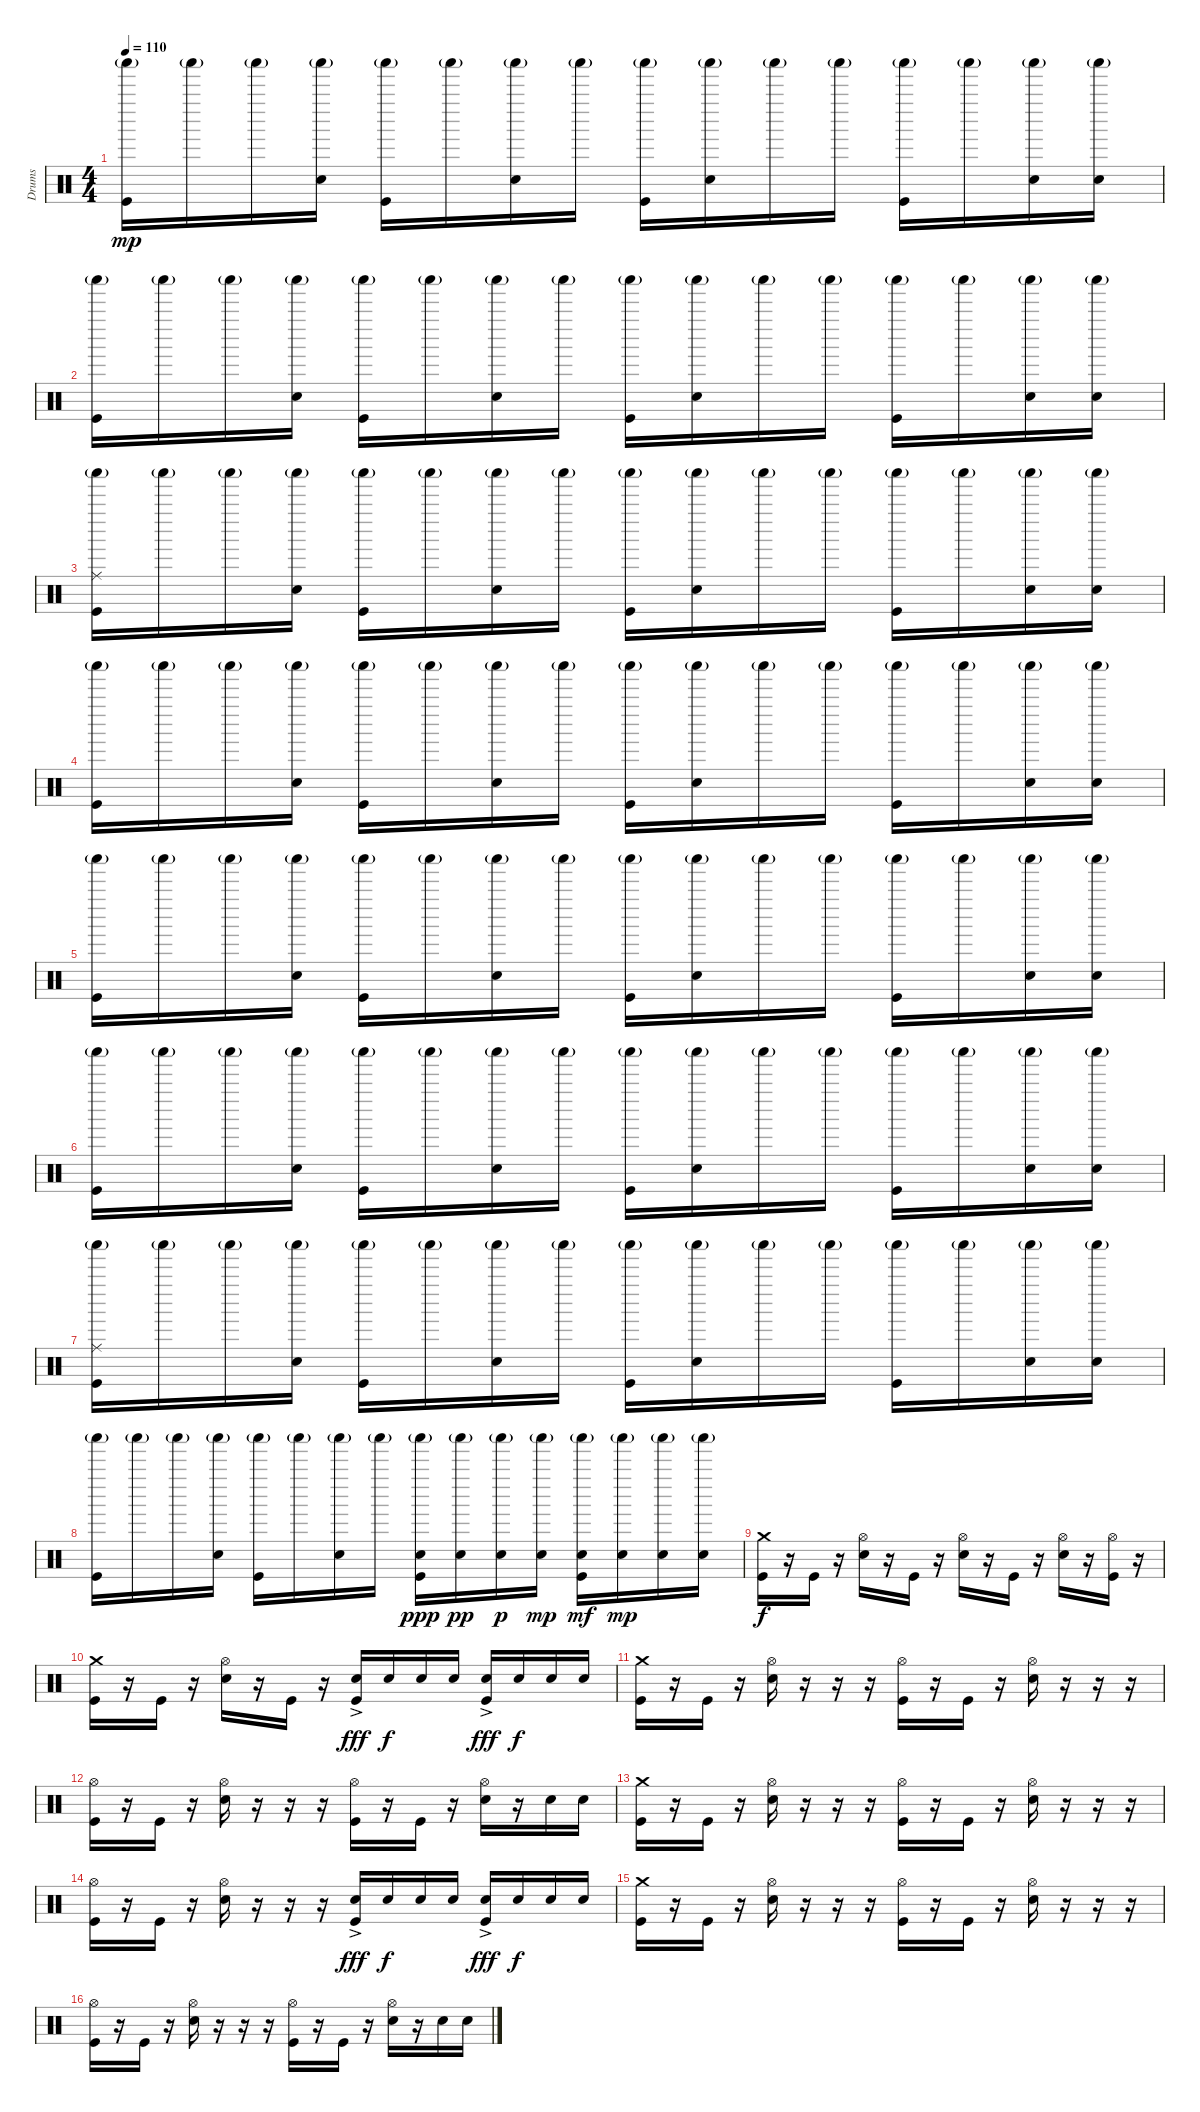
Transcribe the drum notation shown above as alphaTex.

\track ("Drums" "Drums") {instrument percussion}
\staff {score}
\articulation defaults
\ts (4 4)
\tempo 110
\clef neutral
\ks c
("Shaker (hit)"{g} "Kick (hit)").16{dy mp} "Shaker (hit)"{g}.16 "Shaker (hit)"{g}.16 ("Shaker (hit)"{g} "Snare (hit) 2").16 ("Shaker (hit)"{g} "Kick (hit)").16 "Shaker (hit)"{g}.16 ("Shaker (hit)"{g} "Snare (hit) 2").16 "Shaker (hit)"{g}.16 ("Shaker (hit)"{g} "Kick (hit)").16 ("Shaker (hit)"{g} "Snare (hit) 2").16 "Shaker (hit)"{g}.16 "Shaker (hit)"{g}.16 ("Shaker (hit)"{g} "Kick (hit)").16 "Shaker (hit)"{g}.16 ("Shaker (hit)"{g} "Snare (hit) 2").16 ("Shaker (hit)"{g} "Snare (hit) 2").16 |
("Shaker (hit)"{g} "Kick (hit)").16 "Shaker (hit)"{g}.16 "Shaker (hit)"{g}.16 ("Shaker (hit)"{g} "Snare (hit) 2").16 ("Shaker (hit)"{g} "Kick (hit)").16 "Shaker (hit)"{g}.16 ("Shaker (hit)"{g} "Snare (hit) 2").16 "Shaker (hit)"{g}.16 ("Shaker (hit)"{g} "Kick (hit)").16 ("Shaker (hit)"{g} "Snare (hit) 2").16 "Shaker (hit)"{g}.16 "Shaker (hit)"{g}.16 ("Shaker (hit)"{g} "Kick (hit)").16 "Shaker (hit)"{g}.16 ("Shaker (hit)"{g} "Snare (hit) 2").16 ("Shaker (hit)"{g} "Snare (hit) 2").16 |
("Shaker (hit)"{g} "Ride (middle)" "Kick (hit)").16 "Shaker (hit)"{g}.16 "Shaker (hit)"{g}.16 ("Shaker (hit)"{g} "Snare (hit) 2").16 ("Shaker (hit)"{g} "Kick (hit)").16 "Shaker (hit)"{g}.16 ("Shaker (hit)"{g} "Snare (hit) 2").16 "Shaker (hit)"{g}.16 ("Shaker (hit)"{g} "Kick (hit)").16 ("Shaker (hit)"{g} "Snare (hit) 2").16 "Shaker (hit)"{g}.16 "Shaker (hit)"{g}.16 ("Shaker (hit)"{g} "Kick (hit)").16 "Shaker (hit)"{g}.16 ("Shaker (hit)"{g} "Snare (hit) 2").16 ("Shaker (hit)"{g} "Snare (hit) 2").16 |
("Shaker (hit)"{g} "Kick (hit)").16 "Shaker (hit)"{g}.16 "Shaker (hit)"{g}.16 ("Shaker (hit)"{g} "Snare (hit) 2").16 ("Shaker (hit)"{g} "Kick (hit)").16 "Shaker (hit)"{g}.16 ("Shaker (hit)"{g} "Snare (hit) 2").16 "Shaker (hit)"{g}.16 ("Shaker (hit)"{g} "Kick (hit)").16 ("Shaker (hit)"{g} "Snare (hit) 2").16 "Shaker (hit)"{g}.16 "Shaker (hit)"{g}.16 ("Shaker (hit)"{g} "Kick (hit)").16 "Shaker (hit)"{g}.16 ("Shaker (hit)"{g} "Snare (hit) 2").16 ("Shaker (hit)"{g} "Snare (hit) 2").16 |
("Shaker (hit)"{g} "Kick (hit)").16 "Shaker (hit)"{g}.16 "Shaker (hit)"{g}.16 ("Shaker (hit)"{g} "Snare (hit) 2").16 ("Shaker (hit)"{g} "Kick (hit)").16 "Shaker (hit)"{g}.16 ("Shaker (hit)"{g} "Snare (hit) 2").16 "Shaker (hit)"{g}.16 ("Shaker (hit)"{g} "Kick (hit)").16 ("Shaker (hit)"{g} "Snare (hit) 2").16 "Shaker (hit)"{g}.16 "Shaker (hit)"{g}.16 ("Shaker (hit)"{g} "Kick (hit)").16 "Shaker (hit)"{g}.16 ("Shaker (hit)"{g} "Snare (hit) 2").16 ("Shaker (hit)"{g} "Snare (hit) 2").16 |
("Shaker (hit)"{g} "Kick (hit)").16 "Shaker (hit)"{g}.16 "Shaker (hit)"{g}.16 ("Shaker (hit)"{g} "Snare (hit) 2").16 ("Shaker (hit)"{g} "Kick (hit)").16 "Shaker (hit)"{g}.16 ("Shaker (hit)"{g} "Snare (hit) 2").16 "Shaker (hit)"{g}.16 ("Shaker (hit)"{g} "Kick (hit)").16 ("Shaker (hit)"{g} "Snare (hit) 2").16 "Shaker (hit)"{g}.16 "Shaker (hit)"{g}.16 ("Shaker (hit)"{g} "Kick (hit)").16 "Shaker (hit)"{g}.16 ("Shaker (hit)"{g} "Snare (hit) 2").16 ("Shaker (hit)"{g} "Snare (hit) 2").16 |
("Shaker (hit)"{g} "Ride (middle)" "Kick (hit)").16 "Shaker (hit)"{g}.16 "Shaker (hit)"{g}.16 ("Shaker (hit)"{g} "Snare (hit) 2").16 ("Shaker (hit)"{g} "Kick (hit)").16 "Shaker (hit)"{g}.16 ("Shaker (hit)"{g} "Snare (hit) 2").16 "Shaker (hit)"{g}.16 ("Shaker (hit)"{g} "Kick (hit)").16 ("Shaker (hit)"{g} "Snare (hit) 2").16 "Shaker (hit)"{g}.16 "Shaker (hit)"{g}.16 ("Shaker (hit)"{g} "Kick (hit)").16 "Shaker (hit)"{g}.16 ("Shaker (hit)"{g} "Snare (hit) 2").16 ("Shaker (hit)"{g} "Snare (hit) 2").16 |
("Shaker (hit)"{g} "Kick (hit)").16 "Shaker (hit)"{g}.16 "Shaker (hit)"{g}.16 ("Shaker (hit)"{g} "Snare (hit) 2").16 ("Shaker (hit)"{g} "Kick (hit)").16 "Shaker (hit)"{g}.16 ("Shaker (hit)"{g} "Snare (hit) 2").16 "Shaker (hit)"{g}.16 ("Shaker (hit)"{g} "Snare (hit) 2" "Kick (hit)").16{dy ppp} ("Shaker (hit)"{g} "Snare (hit) 2").16{dy pp} ("Shaker (hit)"{g} "Snare (hit) 2").16{dy p} ("Shaker (hit)"{g} "Snare (hit) 2").16{dy mp} ("Shaker (hit)"{g} "Snare (hit) 2" "Kick (hit)").16{dy mf} ("Shaker (hit)"{g} "Snare (hit) 2").16{dy mp} ("Shaker (hit)"{g} "Snare (hit) 2").16 ("Shaker (hit)"{g} "Snare (hit) 2").16 |
("Crash medium (hit)" "Kick (hit)").16{dy f} r.16 "Kick (hit)".16 r.16 ("Hi-Hat (open)" "Snare (hit) 2").16 r.16 "Kick (hit)".16 r.16 ("Hi-Hat (open)" "Snare (hit) 2").16 r.16 "Kick (hit)".16 r.16 ("Hi-Hat (open)" "Snare (hit) 2").16 r.16 ("Hi-Hat (open)" "Kick (hit)").16 r.16 |
("Crash medium (hit)" "Kick (hit)").16 r.16 "Kick (hit)".16 r.16 ("Hi-Hat (open)" "Snare (hit) 2").16 r.16 "Kick (hit)".16 r.16 ("Snare (hit) 2"{ac} "Kick (hit)").16{dy fff} "Snare (hit) 2".16{dy f} "Snare (hit) 2".16 "Snare (hit) 2".16 ("Snare (hit) 2"{ac} "Kick (hit)").16{dy fff} "Snare (hit) 2".16{dy f} "Snare (hit) 2".16 "Snare (hit) 2".16 |
("Crash medium (hit)" "Kick (hit)").16 r.16 "Kick (hit)".16 r.16 ("Hi-Hat (open)" "Snare (hit) 2").16 r.16 r.16 r.16 ("Hi-Hat (open)" "Kick (hit)").16 r.16 "Kick (hit)".16 r.16 ("Hi-Hat (open)" "Snare (hit) 2").16 r.16 r.16 r.16 |
("Hi-Hat (open)" "Kick (hit)").16 r.16 "Kick (hit)".16 r.16 ("Hi-Hat (open)" "Snare (hit) 2").16 r.16 r.16 r.16 ("Hi-Hat (open)" "Kick (hit)").16 r.16 "Kick (hit)".16 r.16 ("Hi-Hat (open)" "Snare (hit) 2").16 r.16 "Snare (hit) 2".16 "Snare (hit) 2".16 |
("Crash medium (hit)" "Kick (hit)").16 r.16 "Kick (hit)".16 r.16 ("Hi-Hat (open)" "Snare (hit) 2").16 r.16 r.16 r.16 ("Hi-Hat (open)" "Kick (hit)").16 r.16 "Kick (hit)".16 r.16 ("Hi-Hat (open)" "Snare (hit) 2").16 r.16 r.16 r.16 |
("Hi-Hat (open)" "Kick (hit)").16 r.16 "Kick (hit)".16 r.16 ("Hi-Hat (open)" "Snare (hit) 2").16 r.16 r.16 r.16 ("Snare (hit) 2" "Kick (hit)"{ac}).16{dy fff} "Snare (hit) 2".16{dy f} "Snare (hit) 2".16 "Snare (hit) 2".16 ("Snare (hit) 2" "Kick (hit)"{ac}).16{dy fff} "Snare (hit) 2".16{dy f} "Snare (hit) 2".16 "Snare (hit) 2".16 |
("Crash medium (hit)" "Kick (hit)").16 r.16 "Kick (hit)".16 r.16 ("Hi-Hat (open)" "Snare (hit) 2").16 r.16 r.16 r.16 ("Hi-Hat (open)" "Kick (hit)").16 r.16 "Kick (hit)".16 r.16 ("Hi-Hat (open)" "Snare (hit) 2").16 r.16 r.16 r.16 |
("Hi-Hat (open)" "Kick (hit)").16 r.16 "Kick (hit)".16 r.16 ("Hi-Hat (open)" "Snare (hit) 2").16 r.16 r.16 r.16 ("Hi-Hat (open)" "Kick (hit)").16 r.16 "Kick (hit)".16 r.16 ("Hi-Hat (open)" "Snare (hit) 2").16 r.16 "Snare (hit) 2".16 "Snare (hit) 2".16
